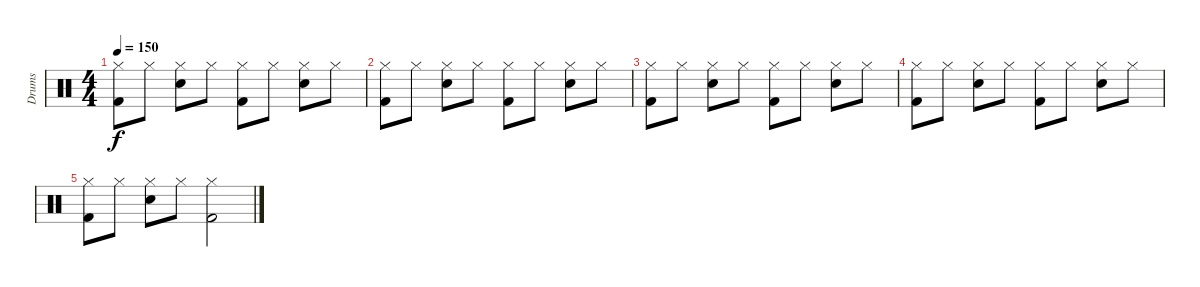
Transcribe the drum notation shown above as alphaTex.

\track ("Drums" "Drums") {instrument percussion}
\staff {score}
\articulation defaults
\ts (4 4)
\tempo 150
\clef neutral
\ks c
("Hi-Hat (closed)" "Kick (hit) 2").8{dy f} "Hi-Hat (closed)".8 ("Hi-Hat (closed)" "Electric Snare (hit)").8 "Hi-Hat (closed)".8 ("Hi-Hat (closed)" "Kick (hit) 2").8 "Hi-Hat (closed)".8 ("Hi-Hat (closed)" "Electric Snare (hit)").8 "Hi-Hat (closed)".8 |
("Hi-Hat (closed)" "Kick (hit) 2").8 "Hi-Hat (closed)".8 ("Hi-Hat (closed)" "Electric Snare (hit)").8 "Hi-Hat (closed)".8 ("Hi-Hat (closed)" "Kick (hit) 2").8 "Hi-Hat (closed)".8 ("Hi-Hat (closed)" "Electric Snare (hit)").8 "Hi-Hat (closed)".8 |
("Hi-Hat (closed)" "Kick (hit) 2").8 "Hi-Hat (closed)".8 ("Hi-Hat (closed)" "Electric Snare (hit)").8 "Hi-Hat (closed)".8 ("Hi-Hat (closed)" "Kick (hit) 2").8 "Hi-Hat (closed)".8 ("Hi-Hat (closed)" "Electric Snare (hit)").8 "Hi-Hat (closed)".8 |
("Hi-Hat (closed)" "Kick (hit) 2").8 "Hi-Hat (closed)".8 ("Hi-Hat (closed)" "Electric Snare (hit)").8 "Hi-Hat (closed)".8 ("Hi-Hat (closed)" "Kick (hit) 2").8 "Hi-Hat (closed)".8 ("Hi-Hat (closed)" "Electric Snare (hit)").8 "Hi-Hat (closed)".8 |
("Hi-Hat (closed)" "Kick (hit) 2").8 "Hi-Hat (closed)".8 ("Hi-Hat (closed)" "Electric Snare (hit)").8 "Hi-Hat (closed)".8 ("Hi-Hat (closed)" "Kick (hit) 2").2
